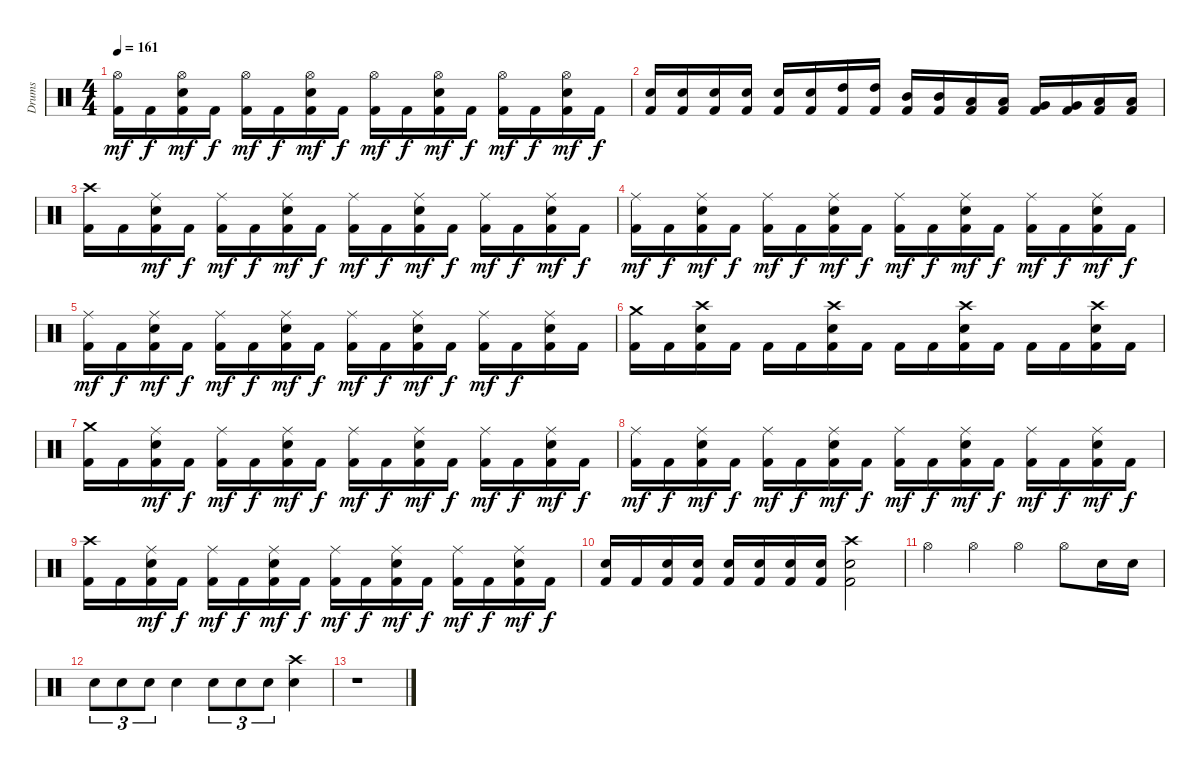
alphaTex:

\track ("Drums" "Drums") {instrument percussion}
\staff {score}
\articulation defaults
\ts (4 4)
\tempo 161
\clef neutral
\ks c
("Hi-Hat (open)" "Kick (hit) 2").16{dy mf} "Kick (hit) 2".16{dy f} ("Hi-Hat (open)" "Electric Snare (hit)" "Kick (hit) 2").16{dy mf} "Kick (hit) 2".16{dy f} ("Hi-Hat (open)" "Kick (hit) 2").16{dy mf} "Kick (hit) 2".16{dy f} ("Hi-Hat (open)" "Electric Snare (hit)" "Kick (hit) 2").16{dy mf} "Kick (hit) 2".16{dy f} ("Hi-Hat (open)" "Kick (hit) 2").16{dy mf} "Kick (hit) 2".16{dy f} ("Hi-Hat (open)" "Electric Snare (hit)" "Kick (hit) 2").16{dy mf} "Kick (hit) 2".16{dy f} ("Hi-Hat (open)" "Kick (hit) 2").16{dy mf} "Kick (hit) 2".16{dy f} ("Hi-Hat (open)" "Electric Snare (hit)" "Kick (hit) 2").16{dy mf} "Kick (hit) 2".16{dy f} |
("Electric Snare (hit)" "Kick (hit) 2").16 ("Electric Snare (hit)" "Kick (hit) 2").16 ("Electric Snare (hit)" "Kick (hit) 2").16 ("Electric Snare (hit)" "Kick (hit) 2").16 ("Electric Snare (hit)" "Kick (hit) 2").16 ("Electric Snare (hit)" "Kick (hit) 2").16 ("High Tom (hit)" "Kick (hit) 2").16 ("High Tom (hit)" "Kick (hit) 2").16 ("Mid Tom (hit)" "Kick (hit) 2").16 ("Mid Tom (hit)" "Kick (hit) 2").16 ("Low Tom (hit)" "Kick (hit) 2").16 ("Low Tom (hit)" "Kick (hit) 2").16 ("Very Low Tom (hit)" "Kick (hit) 2").16 ("Very Low Tom (hit)" "Kick (hit) 2").16 ("Low Floor Tom (hit)" "Kick (hit) 2").16 ("Low Floor Tom (hit)" "Kick (hit) 2").16 |
("Crash high (hit)" "Kick (hit) 2").16 "Kick (hit) 2".16 ("Ride (middle)" "Electric Snare (hit)" "Kick (hit) 2").16{dy mf} "Kick (hit) 2".16{dy f} ("Ride (middle)" "Kick (hit) 2").16{dy mf} "Kick (hit) 2".16{dy f} ("Ride (middle)" "Electric Snare (hit)" "Kick (hit) 2").16{dy mf} "Kick (hit) 2".16{dy f} ("Ride (middle)" "Kick (hit) 2").16{dy mf} "Kick (hit) 2".16{dy f} ("Ride (middle)" "Electric Snare (hit)" "Kick (hit) 2").16{dy mf} "Kick (hit) 2".16{dy f} ("Ride (middle)" "Kick (hit) 2").16{dy mf} "Kick (hit) 2".16{dy f} ("Ride (middle)" "Electric Snare (hit)" "Kick (hit) 2").16{dy mf} "Kick (hit) 2".16{dy f} |
("Ride (middle)" "Kick (hit) 2").16{dy mf} "Kick (hit) 2".16{dy f} ("Ride (middle)" "Electric Snare (hit)" "Kick (hit) 2").16{dy mf} "Kick (hit) 2".16{dy f} ("Ride (middle)" "Kick (hit) 2").16{dy mf} "Kick (hit) 2".16{dy f} ("Ride (middle)" "Electric Snare (hit)" "Kick (hit) 2").16{dy mf} "Kick (hit) 2".16{dy f} ("Ride (middle)" "Kick (hit) 2").16{dy mf} "Kick (hit) 2".16{dy f} ("Ride (middle)" "Electric Snare (hit)" "Kick (hit) 2").16{dy mf} "Kick (hit) 2".16{dy f} ("Ride (middle)" "Kick (hit) 2").16{dy mf} "Kick (hit) 2".16{dy f} ("Ride (middle)" "Electric Snare (hit)" "Kick (hit) 2").16{dy mf} "Kick (hit) 2".16{dy f} |
("Ride (middle)" "Kick (hit) 2").16{dy mf} "Kick (hit) 2".16{dy f} ("Ride (middle)" "Electric Snare (hit)" "Kick (hit) 2").16{dy mf} "Kick (hit) 2".16{dy f} ("Ride (middle)" "Kick (hit) 2").16{dy mf} "Kick (hit) 2".16{dy f} ("Ride (middle)" "Electric Snare (hit)" "Kick (hit) 2").16{dy mf} "Kick (hit) 2".16{dy f} ("Ride (middle)" "Kick (hit) 2").16{dy mf} "Kick (hit) 2".16{dy f} ("Ride (middle)" "Electric Snare (hit)" "Kick (hit) 2").16{dy mf} "Kick (hit) 2".16{dy f} ("Ride (middle)" "Kick (hit) 2").16{dy mf} "Kick (hit) 2".16{dy f} ("Ride (middle)" "Electric Snare (hit)" "Kick (hit) 2").16 "Kick (hit) 2".16 |
("Crash medium (hit)" "Kick (hit) 2").16 "Kick (hit) 2".16 ("Crash high (hit)" "Electric Snare (hit)" "Kick (hit) 2").16 "Kick (hit) 2".16 "Kick (hit) 2".16 "Kick (hit) 2".16 ("Crash high (hit)" "Electric Snare (hit)" "Kick (hit) 2").16 "Kick (hit) 2".16 "Kick (hit) 2".16 "Kick (hit) 2".16 ("Crash high (hit)" "Electric Snare (hit)" "Kick (hit) 2").16 "Kick (hit) 2".16 "Kick (hit) 2".16 "Kick (hit) 2".16 ("Crash high (hit)" "Electric Snare (hit)" "Kick (hit) 2").16 "Kick (hit) 2".16 |
("Crash medium (hit)" "Kick (hit) 2").16 "Kick (hit) 2".16 ("Ride (middle)" "Electric Snare (hit)" "Kick (hit) 2").16{dy mf} "Kick (hit) 2".16{dy f} ("Ride (middle)" "Kick (hit) 2").16{dy mf} "Kick (hit) 2".16{dy f} ("Ride (middle)" "Electric Snare (hit)" "Kick (hit) 2").16{dy mf} "Kick (hit) 2".16{dy f} ("Ride (middle)" "Kick (hit) 2").16{dy mf} "Kick (hit) 2".16{dy f} ("Ride (middle)" "Electric Snare (hit)" "Kick (hit) 2").16{dy mf} "Kick (hit) 2".16{dy f} ("Ride (middle)" "Kick (hit) 2").16{dy mf} "Kick (hit) 2".16{dy f} ("Ride (middle)" "Electric Snare (hit)" "Kick (hit) 2").16{dy mf} "Kick (hit) 2".16{dy f} |
("Ride (middle)" "Kick (hit) 2").16{dy mf} "Kick (hit) 2".16{dy f} ("Ride (middle)" "Electric Snare (hit)" "Kick (hit) 2").16{dy mf} "Kick (hit) 2".16{dy f} ("Ride (middle)" "Kick (hit) 2").16{dy mf} "Kick (hit) 2".16{dy f} ("Ride (middle)" "Electric Snare (hit)" "Kick (hit) 2").16{dy mf} "Kick (hit) 2".16{dy f} ("Ride (middle)" "Kick (hit) 2").16{dy mf} "Kick (hit) 2".16{dy f} ("Ride (middle)" "Electric Snare (hit)" "Kick (hit) 2").16{dy mf} "Kick (hit) 2".16{dy f} ("Ride (middle)" "Kick (hit) 2").16{dy mf} "Kick (hit) 2".16{dy f} ("Ride (middle)" "Electric Snare (hit)" "Kick (hit) 2").16{dy mf} "Kick (hit) 2".16{dy f} |
("Crash high (hit)" "Kick (hit) 2").16 "Kick (hit) 2".16 ("Ride (middle)" "Electric Snare (hit)" "Kick (hit) 2").16{dy mf} "Kick (hit) 2".16{dy f} ("Ride (middle)" "Kick (hit) 2").16{dy mf} "Kick (hit) 2".16{dy f} ("Ride (middle)" "Electric Snare (hit)" "Kick (hit) 2").16{dy mf} "Kick (hit) 2".16{dy f} ("Ride (middle)" "Kick (hit) 2").16{dy mf} "Kick (hit) 2".16{dy f} ("Ride (middle)" "Electric Snare (hit)" "Kick (hit) 2").16{dy mf} "Kick (hit) 2".16{dy f} ("Ride (middle)" "Kick (hit) 2").16{dy mf} "Kick (hit) 2".16{dy f} ("Ride (middle)" "Electric Snare (hit)" "Kick (hit) 2").16{dy mf} "Kick (hit) 2".16{dy f} |
("Electric Snare (hit)" "Kick (hit) 2").16 "Kick (hit) 2".16 ("Electric Snare (hit)" "Kick (hit) 2").16 ("Electric Snare (hit)" "Kick (hit) 2").16 ("Electric Snare (hit)" "Kick (hit) 2").16 ("Electric Snare (hit)" "Kick (hit) 2").16 ("Electric Snare (hit)" "Kick (hit) 2").16 ("Electric Snare (hit)" "Kick (hit) 2").16 ("Crash high (hit)" "Electric Snare (hit)" "Kick (hit) 2").2 |
"Hi-Hat (open)".4 "Hi-Hat (open)".4 "Hi-Hat (open)".4 "Hi-Hat (open)".8 "Electric Snare (hit)".16 "Electric Snare (hit)".16 |
"Electric Snare (hit)".8{tu (3 2)} "Electric Snare (hit)".8{tu (3 2)} "Electric Snare (hit)".8{tu (3 2)} "Electric Snare (hit)".4 "Electric Snare (hit)".8{tu (3 2)} "Electric Snare (hit)".8{tu (3 2)} "Electric Snare (hit)".8{tu (3 2)} ("Crash high (hit)" "Electric Snare (hit)").4 |
r.1
